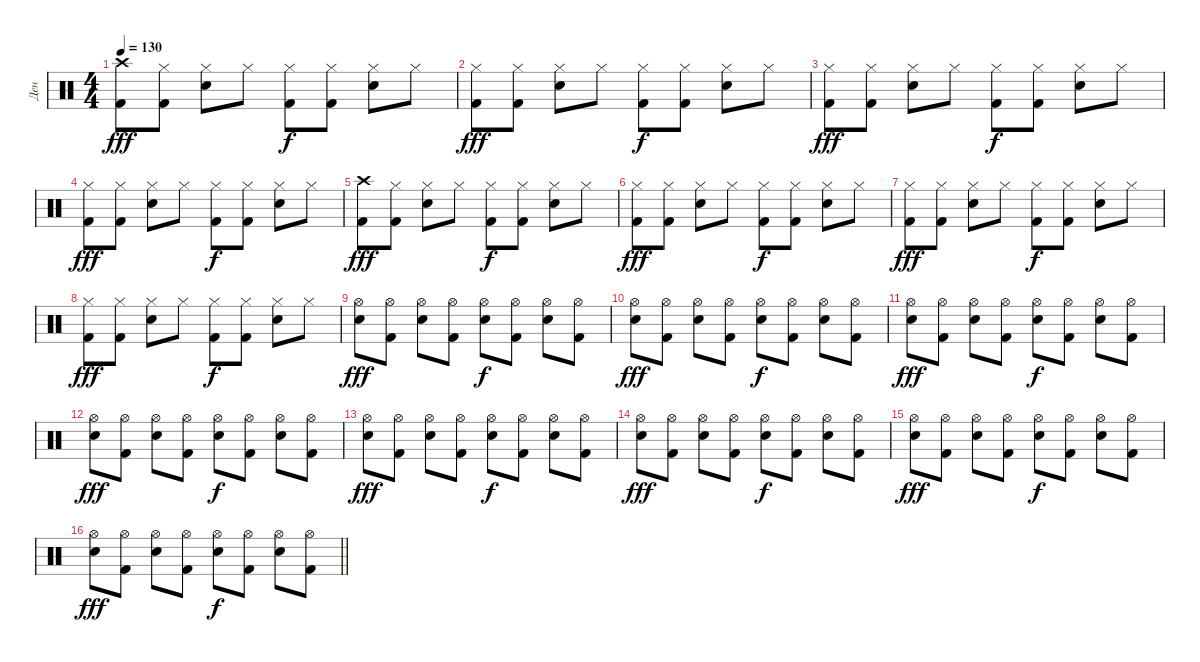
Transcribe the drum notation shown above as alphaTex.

\track ("Ден" "Ден") {instrument percussion}
\staff {score}
\articulation defaults
\ts (4 4)
\tempo 130
\clef neutral
\ks c
("Crash high (hit)" "Kick (hit) 2").8{dy fff} ("Hi-Hat (closed)" "Kick (hit) 2").8 ("Hi-Hat (closed)" "Snare (hit) 2").8 "Hi-Hat (closed)".8 ("Hi-Hat (closed)" "Kick (hit) 2").8{dy f} ("Hi-Hat (closed)" "Kick (hit) 2").8 ("Hi-Hat (closed)" "Snare (hit) 2").8 "Hi-Hat (closed)".8 |
("Hi-Hat (closed)" "Kick (hit) 2").8{dy fff} ("Hi-Hat (closed)" "Kick (hit) 2").8 ("Hi-Hat (closed)" "Snare (hit) 2").8 "Hi-Hat (closed)".8 ("Hi-Hat (closed)" "Kick (hit) 2").8{dy f} ("Hi-Hat (closed)" "Kick (hit) 2").8 ("Hi-Hat (closed)" "Snare (hit) 2").8 "Hi-Hat (closed)".8 |
("Hi-Hat (closed)" "Kick (hit) 2").8{dy fff} ("Hi-Hat (closed)" "Kick (hit) 2").8 ("Hi-Hat (closed)" "Snare (hit) 2").8 "Hi-Hat (closed)".8 ("Hi-Hat (closed)" "Kick (hit) 2").8{dy f} ("Hi-Hat (closed)" "Kick (hit) 2").8 ("Hi-Hat (closed)" "Snare (hit) 2").8 "Hi-Hat (closed)".8 |
("Hi-Hat (closed)" "Kick (hit) 2").8{dy fff} ("Hi-Hat (closed)" "Kick (hit) 2").8 ("Hi-Hat (closed)" "Snare (hit) 2").8 "Hi-Hat (closed)".8 ("Hi-Hat (closed)" "Kick (hit) 2").8{dy f} ("Hi-Hat (closed)" "Kick (hit) 2").8 ("Hi-Hat (closed)" "Snare (hit) 2").8 "Hi-Hat (closed)".8 |
("Crash high (hit)" "Kick (hit) 2").8{dy fff} ("Hi-Hat (closed)" "Kick (hit) 2").8 ("Hi-Hat (closed)" "Snare (hit) 2").8 "Hi-Hat (closed)".8 ("Hi-Hat (closed)" "Kick (hit) 2").8{dy f} ("Hi-Hat (closed)" "Kick (hit) 2").8 ("Hi-Hat (closed)" "Snare (hit) 2").8 "Hi-Hat (closed)".8 |
("Hi-Hat (closed)" "Kick (hit) 2").8{dy fff} ("Hi-Hat (closed)" "Kick (hit) 2").8 ("Hi-Hat (closed)" "Snare (hit) 2").8 "Hi-Hat (closed)".8 ("Hi-Hat (closed)" "Kick (hit) 2").8{dy f} ("Hi-Hat (closed)" "Kick (hit) 2").8 ("Hi-Hat (closed)" "Snare (hit) 2").8 "Hi-Hat (closed)".8 |
("Hi-Hat (closed)" "Kick (hit) 2").8{dy fff} ("Hi-Hat (closed)" "Kick (hit) 2").8 ("Hi-Hat (closed)" "Snare (hit) 2").8 "Hi-Hat (closed)".8 ("Hi-Hat (closed)" "Kick (hit) 2").8{dy f} ("Hi-Hat (closed)" "Kick (hit) 2").8 ("Hi-Hat (closed)" "Snare (hit) 2").8 "Hi-Hat (closed)".8 |
("Hi-Hat (closed)" "Kick (hit) 2").8{dy fff} ("Hi-Hat (closed)" "Kick (hit) 2").8 ("Hi-Hat (closed)" "Snare (hit) 2").8 "Hi-Hat (closed)".8 ("Hi-Hat (closed)" "Kick (hit) 2").8{dy f} ("Hi-Hat (closed)" "Kick (hit) 2").8 ("Hi-Hat (closed)" "Snare (hit) 2").8 "Hi-Hat (closed)".8 |
("Hi-Hat (open)" "Snare (hit) 2").8{dy fff} ("Hi-Hat (open)" "Kick (hit) 2").8 ("Hi-Hat (open)" "Snare (hit) 2").8 ("Hi-Hat (open)" "Kick (hit) 2").8 ("Hi-Hat (open)" "Snare (hit) 2").8{dy f} ("Hi-Hat (open)" "Kick (hit) 2").8 ("Hi-Hat (open)" "Snare (hit) 2").8 ("Hi-Hat (open)" "Kick (hit) 2").8 |
("Hi-Hat (open)" "Snare (hit) 2").8{dy fff} ("Hi-Hat (open)" "Kick (hit) 2").8 ("Hi-Hat (open)" "Snare (hit) 2").8 ("Hi-Hat (open)" "Kick (hit) 2").8 ("Hi-Hat (open)" "Snare (hit) 2").8{dy f} ("Hi-Hat (open)" "Kick (hit) 2").8 ("Hi-Hat (open)" "Snare (hit) 2").8 ("Hi-Hat (open)" "Kick (hit) 2").8 |
("Hi-Hat (open)" "Snare (hit) 2").8{dy fff} ("Hi-Hat (open)" "Kick (hit) 2").8 ("Hi-Hat (open)" "Snare (hit) 2").8 ("Hi-Hat (open)" "Kick (hit) 2").8 ("Hi-Hat (open)" "Snare (hit) 2").8{dy f} ("Hi-Hat (open)" "Kick (hit) 2").8 ("Hi-Hat (open)" "Snare (hit) 2").8 ("Hi-Hat (open)" "Kick (hit) 2").8 |
("Hi-Hat (open)" "Snare (hit) 2").8{dy fff} ("Hi-Hat (open)" "Kick (hit) 2").8 ("Hi-Hat (open)" "Snare (hit) 2").8 ("Hi-Hat (open)" "Kick (hit) 2").8 ("Hi-Hat (open)" "Snare (hit) 2").8{dy f} ("Hi-Hat (open)" "Kick (hit) 2").8 ("Hi-Hat (open)" "Snare (hit) 2").8 ("Hi-Hat (open)" "Kick (hit) 2").8 |
("Hi-Hat (open)" "Snare (hit) 2").8{dy fff} ("Hi-Hat (open)" "Kick (hit) 2").8 ("Hi-Hat (open)" "Snare (hit) 2").8 ("Hi-Hat (open)" "Kick (hit) 2").8 ("Hi-Hat (open)" "Snare (hit) 2").8{dy f} ("Hi-Hat (open)" "Kick (hit) 2").8 ("Hi-Hat (open)" "Snare (hit) 2").8 ("Hi-Hat (open)" "Kick (hit) 2").8 |
("Hi-Hat (open)" "Snare (hit) 2").8{dy fff} ("Hi-Hat (open)" "Kick (hit) 2").8 ("Hi-Hat (open)" "Snare (hit) 2").8 ("Hi-Hat (open)" "Kick (hit) 2").8 ("Hi-Hat (open)" "Snare (hit) 2").8{dy f} ("Hi-Hat (open)" "Kick (hit) 2").8 ("Hi-Hat (open)" "Snare (hit) 2").8 ("Hi-Hat (open)" "Kick (hit) 2").8 |
("Hi-Hat (open)" "Snare (hit) 2").8{dy fff} ("Hi-Hat (open)" "Kick (hit) 2").8 ("Hi-Hat (open)" "Snare (hit) 2").8 ("Hi-Hat (open)" "Kick (hit) 2").8 ("Hi-Hat (open)" "Snare (hit) 2").8{dy f} ("Hi-Hat (open)" "Kick (hit) 2").8 ("Hi-Hat (open)" "Snare (hit) 2").8 ("Hi-Hat (open)" "Kick (hit) 2").8 |
\barLineRight lightlight
("Hi-Hat (open)" "Snare (hit) 2").8{dy fff} ("Hi-Hat (open)" "Kick (hit) 2").8 ("Hi-Hat (open)" "Snare (hit) 2").8 ("Hi-Hat (open)" "Kick (hit) 2").8 ("Hi-Hat (open)" "Snare (hit) 2").8{dy f} ("Hi-Hat (open)" "Kick (hit) 2").8 ("Hi-Hat (open)" "Snare (hit) 2").8 ("Hi-Hat (open)" "Kick (hit) 2").8
